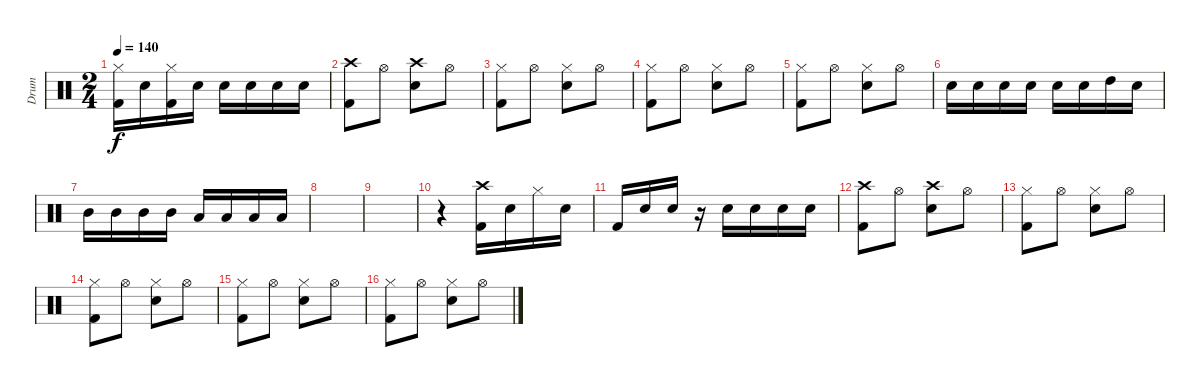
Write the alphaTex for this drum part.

\track ("Drum" "Drum") {instrument percussion}
\staff {score}
\articulation defaults
\ts (2 4)
\tempo 140
\clef neutral
\ks c
("Hi-Hat (closed)" "Kick (hit) 2").16{dy f} "Electric Snare (hit)".16 ("Hi-Hat (closed)" "Kick (hit) 2").16 "Electric Snare (hit)".16 "Electric Snare (hit)".16 "Electric Snare (hit)".16 "Electric Snare (hit)".16 "Electric Snare (hit)".16 |
("Crash high (hit)" "Kick (hit) 2").8 "Hi-Hat (open)".8 ("Crash high (hit)" "Electric Snare (hit)").8 "Hi-Hat (open)".8 |
("Kick (hit) 2" "Hi-Hat (closed)").8 "Hi-Hat (open)".8 ("Hi-Hat (closed)" "Electric Snare (hit)").8 "Hi-Hat (open)".8 |
("Kick (hit) 2" "Hi-Hat (closed)").8 "Hi-Hat (open)".8 ("Hi-Hat (closed)" "Electric Snare (hit)").8 "Hi-Hat (open)".8 |
("Kick (hit) 2" "Hi-Hat (closed)").8 "Hi-Hat (open)".8 ("Hi-Hat (closed)" "Electric Snare (hit)").8 "Hi-Hat (open)".8 |
"Electric Snare (hit)".16 "Electric Snare (hit)".16 "Electric Snare (hit)".16 "Electric Snare (hit)".16 "Electric Snare (hit)".16 "Electric Snare (hit)".16 "High Tom (hit)".16 "Electric Snare (hit)".16 |
"Mid Tom (hit)".16 "Mid Tom (hit)".16 "Mid Tom (hit)".16 "Mid Tom (hit)".16 "Low Tom (hit)".16 "Low Tom (hit)".16 "Low Tom (hit)".16 "Low Tom (hit)".16 |
|
|
r.4 ("Kick (hit) 2" "Crash high (hit)").16 "Electric Snare (hit)".16 "Hi-Hat (closed)".16 "Electric Snare (hit)".16 |
"Kick (hit) 2".16 "Electric Snare (hit)".16 "Electric Snare (hit)".16 r.16 "Electric Snare (hit)".16 "Electric Snare (hit)".16 "Electric Snare (hit)".16 "Electric Snare (hit)".16 |
("Crash high (hit)" "Kick (hit) 2").8 "Hi-Hat (open)".8 ("Crash high (hit)" "Electric Snare (hit)").8 "Hi-Hat (open)".8 |
("Kick (hit) 2" "Hi-Hat (closed)").8 "Hi-Hat (open)".8 ("Hi-Hat (closed)" "Electric Snare (hit)").8 "Hi-Hat (open)".8 |
("Kick (hit) 2" "Hi-Hat (closed)").8 "Hi-Hat (open)".8 ("Hi-Hat (closed)" "Electric Snare (hit)").8 "Hi-Hat (open)".8 |
("Kick (hit) 2" "Hi-Hat (closed)").8 "Hi-Hat (open)".8 ("Hi-Hat (closed)" "Electric Snare (hit)").8 "Hi-Hat (open)".8 |
("Kick (hit) 2" "Hi-Hat (closed)").8 "Hi-Hat (open)".8 ("Hi-Hat (closed)" "Electric Snare (hit)").8 "Hi-Hat (open)".8
